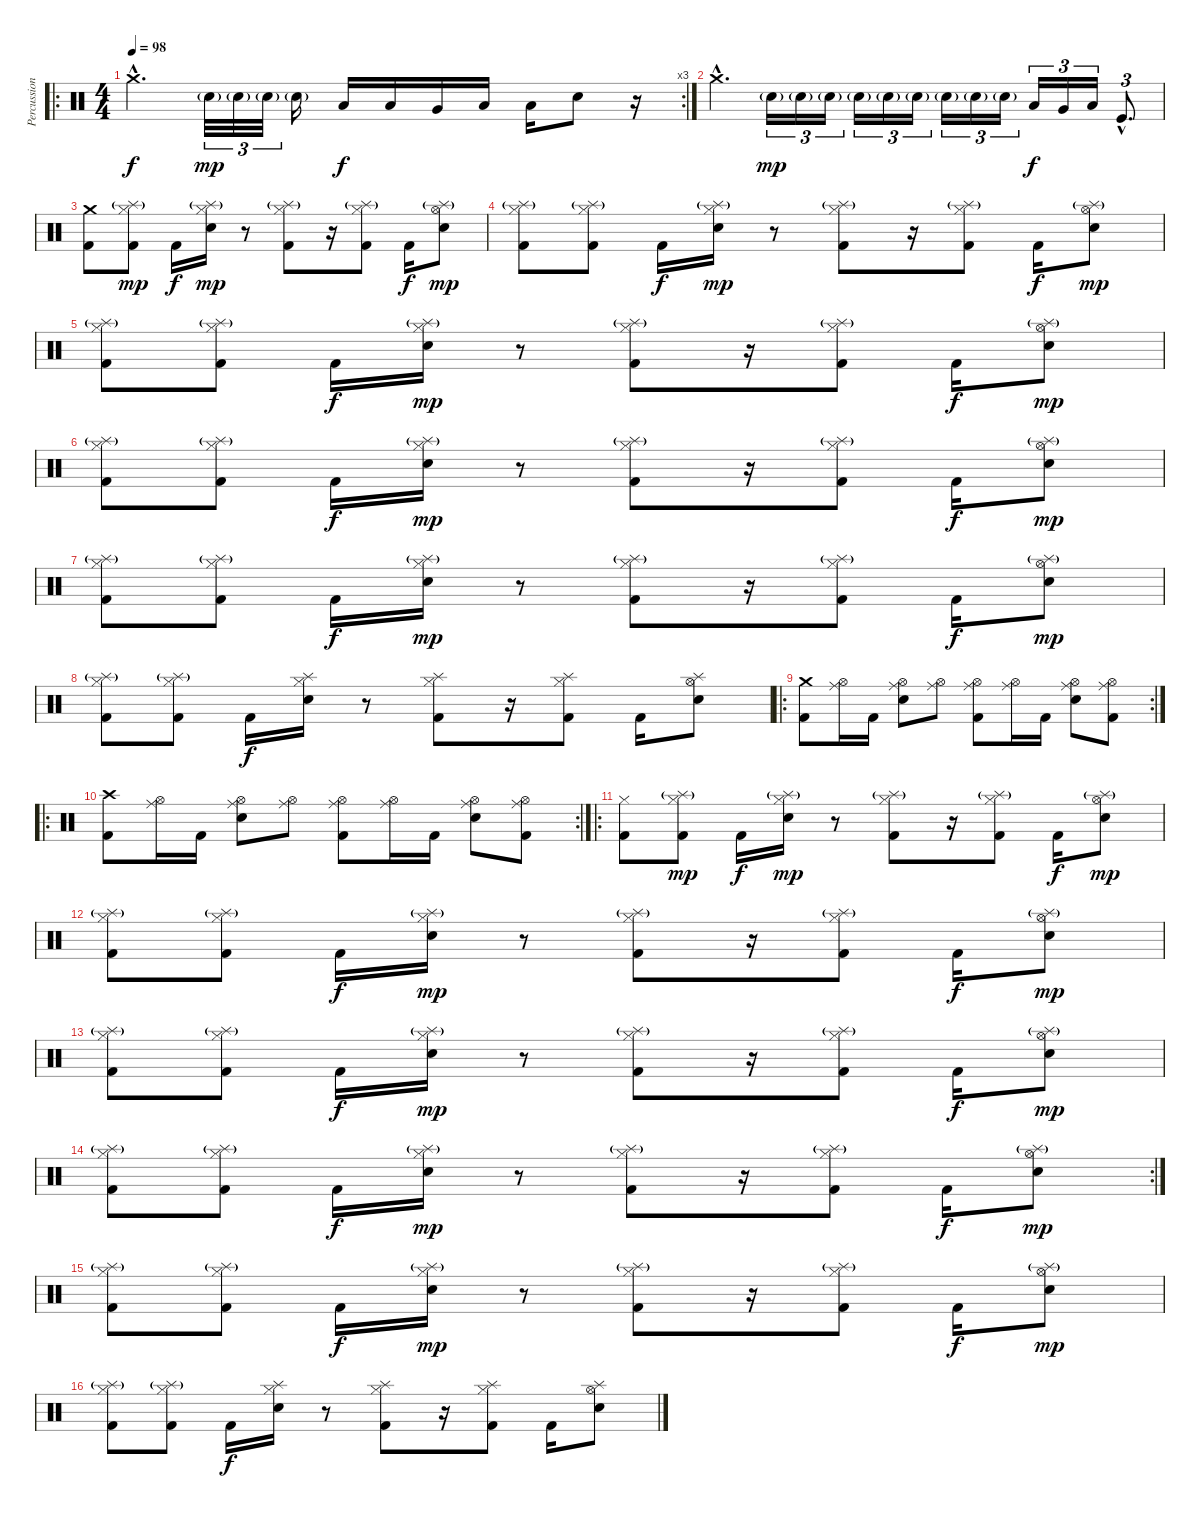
\track ("Percussion" "Percussion") {instrument percussion}
\staff {score}
\articulation defaults
\ro
\rc 3
\ts (4 4)
\tempo 98
\clef neutral
\ks c "Crash medium (hit)"{hac}.4{d dy f} "Electric Snare (hit)"{g}.32{tu (3 2) dy mp} "Electric Snare (hit)"{g}.32{tu (3 2)} "Electric Snare (hit)"{g}.32{tu (3 2)} "Electric Snare (hit)"{g}.16 "Low Tom (hit)".16{dy f} "Low Tom (hit)".16 "Very Low Tom (hit)".16 "Low Floor Tom (hit)".16 "Low Tom (hit)".16 "Electric Snare (hit)".8
r.16 |
"Crash medium (hit)"{hac}.4{d} "Electric Snare (hit)"{g}.16{tu (3 2) dy mp} "Electric Snare (hit)"{g}.16{tu (3 2)} "Electric Snare (hit)"{g}.16{tu (3 2)} "Electric Snare (hit)"{g}.16{tu (3 2)} "Electric Snare (hit)"{g}.16{tu (3 2)} "Electric Snare (hit)"{g}.16{tu (3 2)} "Electric Snare (hit)"{g}.16{tu (3 2)} "Electric Snare (hit)"{g}.16{tu (3 2)} "Electric Snare (hit)"{g}.16{tu (3 2)} "Low Tom (hit)".16{tu (3 2) dy f} "Very Low Tom (hit)".16{tu (3 2)} "Low Floor Tom (hit)".16{tu (3 2)} "Kick (hit)"{hac}.8{d tu (3 2)} |
("Crash medium (hit)" "Kick (hit) 2").8 ("Hi-Hat (closed)" "Splash (hit)"{g} "Kick (hit) 2").8{dy mp} "Kick (hit) 2".16{dy f} ("Hi-Hat (closed)" "Splash (hit)"{g} "Electric Snare (hit)").16{dy mp} r.8 ("Hi-Hat (closed)" "Splash (hit)"{g} "Kick (hit) 2").8 r.16 ("Hi-Hat (closed)" "Splash (hit)"{g} "Kick (hit) 2").8 "Kick (hit) 2".16{dy f} ("Hi-Hat (open)" "Splash (hit)"{g} "Electric Snare (hit)").8{dy mp} |
("Hi-Hat (closed)" "Splash (hit)"{g} "Kick (hit) 2").8 ("Hi-Hat (closed)" "Splash (hit)"{g} "Kick (hit) 2").8 "Kick (hit) 2".16{dy f} ("Hi-Hat (closed)" "Splash (hit)"{g} "Electric Snare (hit)").16{dy mp} r.8 ("Hi-Hat (closed)" "Splash (hit)"{g} "Kick (hit) 2").8 r.16 ("Hi-Hat (closed)" "Splash (hit)"{g} "Kick (hit) 2").8 "Kick (hit) 2".16{dy f} ("Hi-Hat (open)" "Splash (hit)"{g} "Electric Snare (hit)").8{dy mp} |
("Hi-Hat (closed)" "Splash (hit)"{g} "Kick (hit) 2").8 ("Hi-Hat (closed)" "Splash (hit)"{g} "Kick (hit) 2").8 "Kick (hit) 2".16{dy f} ("Hi-Hat (closed)" "Splash (hit)"{g} "Electric Snare (hit)").16{dy mp} r.8 ("Hi-Hat (closed)" "Splash (hit)"{g} "Kick (hit) 2").8 r.16 ("Hi-Hat (closed)" "Splash (hit)"{g} "Kick (hit) 2").8 "Kick (hit) 2".16{dy f} ("Hi-Hat (open)" "Splash (hit)"{g} "Electric Snare (hit)").8{dy mp} |
("Hi-Hat (closed)" "Splash (hit)"{g} "Kick (hit) 2").8 ("Hi-Hat (closed)" "Splash (hit)"{g} "Kick (hit) 2").8 "Kick (hit) 2".16{dy f} ("Hi-Hat (closed)" "Splash (hit)"{g} "Electric Snare (hit)").16{dy mp} r.8 ("Hi-Hat (closed)" "Splash (hit)"{g} "Kick (hit) 2").8 r.16 ("Hi-Hat (closed)" "Splash (hit)"{g} "Kick (hit) 2").8 "Kick (hit) 2".16{dy f} ("Hi-Hat (open)" "Splash (hit)"{g} "Electric Snare (hit)").8{dy mp} |
("Hi-Hat (closed)" "Splash (hit)"{g} "Kick (hit) 2").8 ("Hi-Hat (closed)" "Splash (hit)"{g} "Kick (hit) 2").8 "Kick (hit) 2".16{dy f} ("Hi-Hat (closed)" "Splash (hit)"{g} "Electric Snare (hit)").16{dy mp} r.8 ("Hi-Hat (closed)" "Splash (hit)"{g} "Kick (hit) 2").8 r.16 ("Hi-Hat (closed)" "Splash (hit)"{g} "Kick (hit) 2").8 "Kick (hit) 2".16{dy f} ("Hi-Hat (open)" "Splash (hit)"{g} "Electric Snare (hit)").8{dy mp} |
("Hi-Hat (closed)" "Splash (hit)"{g} "Kick (hit) 2").8 ("Hi-Hat (closed)" "Splash (hit)"{g} "Kick (hit) 2").8 "Kick (hit) 2".16{dy f} ("Hi-Hat (closed)" "Splash (hit)" "Electric Snare (hit)").16 r.8 ("Hi-Hat (closed)" "Splash (hit)" "Kick (hit) 2").8 r.16 ("Hi-Hat (closed)" "Splash (hit)" "Kick (hit) 2").8 "Kick (hit) 2".16 ("Hi-Hat (open)" "Splash (hit)" "Electric Snare (hit)").8 |
\ro
\rc 2
("Crash medium (hit)" "Kick (hit) 2").8 ("Hi-Hat (open)" "Ride (middle)").16 "Kick (hit) 2".16 ("Hi-Hat (open)" "Ride (middle)" "Electric Snare (hit)").8 ("Hi-Hat (open)" "Ride (middle)").8 ("Hi-Hat (open)" "Ride (middle)" "Kick (hit) 2").8 ("Hi-Hat (open)" "Ride (middle)").16 "Kick (hit) 2".16 ("Hi-Hat (open)" "Ride (middle)" "Electric Snare (hit)").8 ("Hi-Hat (open)" "Ride (middle)" "Kick (hit) 2").8 |
\ro
\rc 2
("Crash high (hit)" "Kick (hit) 2").8 ("Hi-Hat (open)" "Ride (middle)").16 "Kick (hit) 2".16 ("Hi-Hat (open)" "Ride (middle)" "Electric Snare (hit)").8 ("Hi-Hat (open)" "Ride (middle)").8 ("Hi-Hat (open)" "Ride (middle)" "Kick (hit) 2").8 ("Hi-Hat (open)" "Ride (middle)").16 "Kick (hit) 2".16 ("Hi-Hat (open)" "Ride (middle)" "Electric Snare (hit)").8 ("Hi-Hat (open)" "Ride (middle)" "Kick (hit) 2").8 |
\ro
("Hi-Hat (closed)" "Kick (hit) 2").8 ("Hi-Hat (closed)" "Splash (hit)"{g} "Kick (hit) 2").8{dy mp} "Kick (hit) 2".16{dy f} ("Hi-Hat (closed)" "Splash (hit)"{g} "Electric Snare (hit)").16{dy mp} r.8 ("Hi-Hat (closed)" "Splash (hit)"{g} "Kick (hit) 2").8 r.16 ("Hi-Hat (closed)" "Splash (hit)"{g} "Kick (hit) 2").8 "Kick (hit) 2".16{dy f} ("Hi-Hat (open)" "Splash (hit)"{g} "Electric Snare (hit)").8{dy mp} |
("Hi-Hat (closed)" "Splash (hit)"{g} "Kick (hit) 2").8 ("Hi-Hat (closed)" "Splash (hit)"{g} "Kick (hit) 2").8 "Kick (hit) 2".16{dy f} ("Hi-Hat (closed)" "Splash (hit)"{g} "Electric Snare (hit)").16{dy mp} r.8 ("Hi-Hat (closed)" "Splash (hit)"{g} "Kick (hit) 2").8 r.16 ("Hi-Hat (closed)" "Splash (hit)"{g} "Kick (hit) 2").8 "Kick (hit) 2".16{dy f} ("Hi-Hat (open)" "Splash (hit)"{g} "Electric Snare (hit)").8{dy mp} |
("Hi-Hat (closed)" "Splash (hit)"{g} "Kick (hit) 2").8 ("Hi-Hat (closed)" "Splash (hit)"{g} "Kick (hit) 2").8 "Kick (hit) 2".16{dy f} ("Hi-Hat (closed)" "Splash (hit)"{g} "Electric Snare (hit)").16{dy mp} r.8 ("Hi-Hat (closed)" "Splash (hit)"{g} "Kick (hit) 2").8 r.16 ("Hi-Hat (closed)" "Splash (hit)"{g} "Kick (hit) 2").8 "Kick (hit) 2".16{dy f} ("Hi-Hat (open)" "Splash (hit)"{g} "Electric Snare (hit)").8{dy mp} |
\rc 2
("Hi-Hat (closed)" "Splash (hit)"{g} "Kick (hit) 2").8 ("Hi-Hat (closed)" "Splash (hit)"{g} "Kick (hit) 2").8 "Kick (hit) 2".16{dy f} ("Hi-Hat (closed)" "Splash (hit)"{g} "Electric Snare (hit)").16{dy mp} r.8 ("Hi-Hat (closed)" "Splash (hit)"{g} "Kick (hit) 2").8 r.16 ("Hi-Hat (closed)" "Splash (hit)"{g} "Kick (hit) 2").8 "Kick (hit) 2".16{dy f} ("Hi-Hat (open)" "Splash (hit)"{g} "Electric Snare (hit)").8{dy mp} |
("Hi-Hat (closed)" "Splash (hit)"{g} "Kick (hit) 2").8 ("Hi-Hat (closed)" "Splash (hit)"{g} "Kick (hit) 2").8 "Kick (hit) 2".16{dy f} ("Hi-Hat (closed)" "Splash (hit)"{g} "Electric Snare (hit)").16{dy mp} r.8 ("Hi-Hat (closed)" "Splash (hit)"{g} "Kick (hit) 2").8 r.16 ("Hi-Hat (closed)" "Splash (hit)"{g} "Kick (hit) 2").8 "Kick (hit) 2".16{dy f} ("Hi-Hat (open)" "Splash (hit)"{g} "Electric Snare (hit)").8{dy mp} |
("Hi-Hat (closed)" "Splash (hit)"{g} "Kick (hit) 2").8 ("Hi-Hat (closed)" "Splash (hit)"{g} "Kick (hit) 2").8 "Kick (hit) 2".16{dy f} ("Hi-Hat (closed)" "Splash (hit)" "Electric Snare (hit)").16 r.8 ("Hi-Hat (closed)" "Splash (hit)" "Kick (hit) 2").8 r.16 ("Hi-Hat (closed)" "Splash (hit)" "Kick (hit) 2").8 "Kick (hit) 2".16 ("Hi-Hat (open)" "Splash (hit)" "Electric Snare (hit)").8
